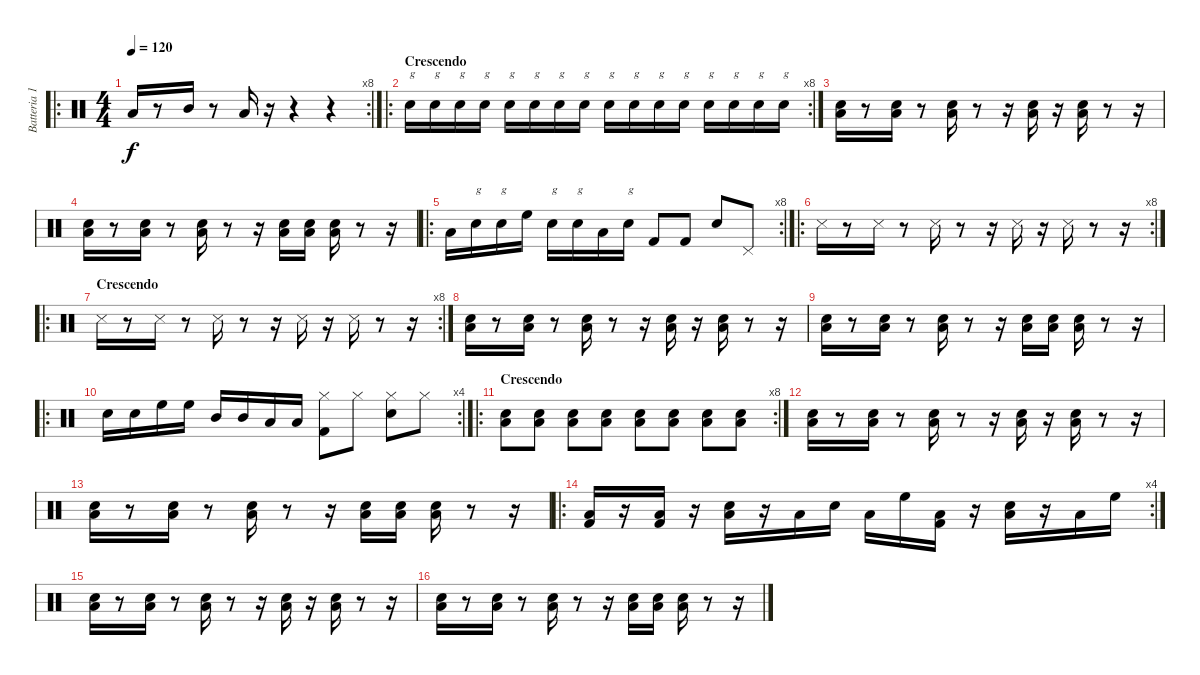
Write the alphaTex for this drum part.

\track ("Batteria 1" "Batteria 1") {instrument percussion}
\staff {score}
\articulation defaults
\ro
\rc 8
\ts (4 4)
\tempo 120
\clef neutral
\ks c "Low Floor Tom (hit)".16{dy f}
r.8 "Mid Tom (hit)".16 r.8 "Low Floor Tom (hit)".16 r.16 r.4 r.4 |
\ro
\rc 8
\section ("" "Crescendo")
"Snare (hit) 2".16{txt "g" volume 5} "Snare (hit) 2".16{txt "g"} "Snare (hit) 2".16{txt "g"} "Snare (hit) 2".16{txt "g"} "Snare (hit) 2".16{txt "g"} "Snare (hit) 2".16{txt "g"} "Snare (hit) 2".16{txt "g"} "Snare (hit) 2".16{txt "g"} "Snare (hit) 2".16{txt "g"} "Snare (hit) 2".16{txt "g"} "Snare (hit) 2".16{txt "g"} "Snare (hit) 2".16{txt "g"} "Snare (hit) 2".16{txt "g"} "Snare (hit) 2".16{txt "g"} "Snare (hit) 2".16{txt "g"} "Snare (hit) 2".16{txt "g"} |
("Low Floor Tom (hit)" "Snare (hit) 2").16{volume 13} r.8 ("Low Floor Tom (hit)" "Snare (hit) 2").16 r.8 ("Low Floor Tom (hit)" "Snare (hit) 2").16 r.8 r.16 ("Low Floor Tom (hit)" "Snare (hit) 2").16 r.16 ("Low Floor Tom (hit)" "Snare (hit) 2").16 r.8 r.16 |
("Low Floor Tom (hit)" "Snare (hit) 2").16 r.8 ("Low Floor Tom (hit)" "Snare (hit) 2").16 r.8 ("Low Floor Tom (hit)" "Snare (hit) 2").16 r.8 r.16 ("Low Floor Tom (hit)" "Snare (hit) 2").16 ("Low Floor Tom (hit)" "Snare (hit) 2").16 ("Low Floor Tom (hit)" "Snare (hit) 2").16 r.8 r.16 |
\ro
\rc 8 "Low Floor Tom (hit)".16 "Snare (hit) 2".16{txt "g"} "Snare (hit) 2".16{txt "g"} "High Floor Tom (hit)".16 "Snare (hit) 2".16{txt "g"} "Snare (hit) 2".16{txt "g"} "Low Floor Tom (hit)".16 "Snare (hit) 2".16{txt "g"} "Kick (hit) 2".8 "Kick (hit) 2".8 "Snare (hit) 2".8 "Pedal Hi-Hat (hit)".8
|
\ro
\rc 8 "Snare (side stick) 3".16{volume 16}
r.8 "Snare (side stick) 3".16 r.8 "Snare (side stick) 3".16 r.8 r.16 "Snare (side stick) 3".16 r.16 "Snare (side stick) 3".16 r.8 r.16 |
\ro
\rc 8
\section ("" "Crescendo")
"Snare (side stick) 3".16{volume 16} r.8 "Snare (side stick) 3".16 r.8 "Snare (side stick) 3".16 r.8 r.16 "Snare (side stick) 3".16 r.16 "Snare (side stick) 3".16 r.8 r.16 |
("Low Floor Tom (hit)" "Snare (hit) 2").16{volume 13} r.8 ("Low Floor Tom (hit)" "Snare (hit) 2").16 r.8 ("Low Floor Tom (hit)" "Snare (hit) 2").16 r.8 r.16 ("Low Floor Tom (hit)" "Snare (hit) 2").16 r.16 ("Low Floor Tom (hit)" "Snare (hit) 2").16 r.8 r.16 |
("Low Floor Tom (hit)" "Snare (hit) 2").16 r.8 ("Low Floor Tom (hit)" "Snare (hit) 2").16 r.8 ("Low Floor Tom (hit)" "Snare (hit) 2").16 r.8 r.16 ("Low Floor Tom (hit)" "Snare (hit) 2").16 ("Low Floor Tom (hit)" "Snare (hit) 2").16 ("Low Floor Tom (hit)" "Snare (hit) 2").16 r.8 r.16 |
\ro
\rc 4 "Snare (hit) 2".16 "Snare (hit) 2".16 "High Floor Tom (hit)".16 "High Floor Tom (hit)".16 "Mid Tom (hit)".16 "Mid Tom (hit)".16 "Low Floor Tom (hit)".16 "Low Floor Tom (hit)".16
("Hi-Hat (closed)" "Kick (hit) 2").8 "Hi-Hat (closed)".8 ("Hi-Hat (closed)" "Snare (hit) 2").8 "Hi-Hat (closed)".8 |
\ro
\rc 8
\section ("" "Crescendo")
("Snare (hit) 2" "Low Floor Tom (hit)").8 ("Snare (hit) 2" "Low Floor Tom (hit)").8 ("Snare (hit) 2" "Low Floor Tom (hit)").8 ("Snare (hit) 2" "Low Floor Tom (hit)").8 ("Snare (hit) 2" "Low Floor Tom (hit)").8 ("Snare (hit) 2" "Low Floor Tom (hit)").8 ("Snare (hit) 2" "Low Floor Tom (hit)").8 ("Snare (hit) 2" "Low Floor Tom (hit)").8 |
("Low Floor Tom (hit)" "Snare (hit) 2").16{volume 13} r.8 ("Low Floor Tom (hit)" "Snare (hit) 2").16 r.8 ("Low Floor Tom (hit)" "Snare (hit) 2").16 r.8 r.16 ("Low Floor Tom (hit)" "Snare (hit) 2").16 r.16 ("Low Floor Tom (hit)" "Snare (hit) 2").16 r.8 r.16 |
("Low Floor Tom (hit)" "Snare (hit) 2").16 r.8 ("Low Floor Tom (hit)" "Snare (hit) 2").16 r.8 ("Low Floor Tom (hit)" "Snare (hit) 2").16 r.8 r.16 ("Low Floor Tom (hit)" "Snare (hit) 2").16 ("Low Floor Tom (hit)" "Snare (hit) 2").16 ("Low Floor Tom (hit)" "Snare (hit) 2").16 r.8 r.16 |
\ro
\rc 4
("Low Floor Tom (hit)" "Kick (hit) 2").16 r.16 ("Low Floor Tom (hit)" "Kick (hit) 2").16 r.16 ("Low Floor Tom (hit)" "Snare (hit) 2").16 r.16 "Low Floor Tom (hit)".16 "Snare (hit) 2".16 "Low Floor Tom (hit)".16 "High Floor Tom (hit)".16 ("Low Floor Tom (hit)" "Kick (hit) 2").16 r.16 ("Low Floor Tom (hit)" "Snare (hit) 2").16 r.16 "Low Floor Tom (hit)".16 "High Floor Tom (hit)".16 |
("Low Floor Tom (hit)" "Snare (hit) 2").16{volume 13} r.8 ("Low Floor Tom (hit)" "Snare (hit) 2").16 r.8 ("Low Floor Tom (hit)" "Snare (hit) 2").16 r.8 r.16 ("Low Floor Tom (hit)" "Snare (hit) 2").16 r.16 ("Low Floor Tom (hit)" "Snare (hit) 2").16 r.8 r.16 |
("Low Floor Tom (hit)" "Snare (hit) 2").16 r.8 ("Low Floor Tom (hit)" "Snare (hit) 2").16 r.8 ("Low Floor Tom (hit)" "Snare (hit) 2").16 r.8 r.16 ("Low Floor Tom (hit)" "Snare (hit) 2").16 ("Low Floor Tom (hit)" "Snare (hit) 2").16 ("Low Floor Tom (hit)" "Snare (hit) 2").16 r.8 r.16
